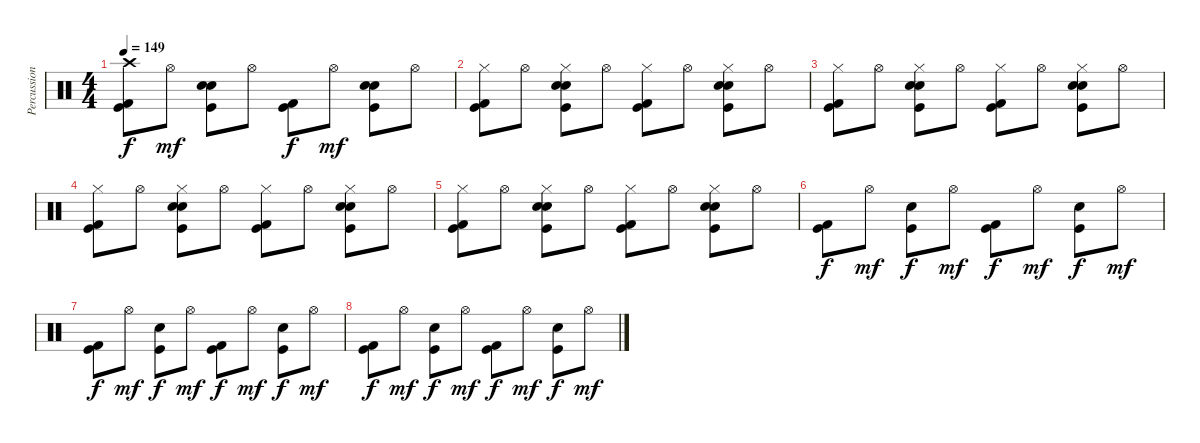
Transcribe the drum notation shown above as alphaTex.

\track ("Percussion" "Percussion") {instrument percussion}
\staff {score}
\articulation defaults
\ts (4 4)
\tempo 149
\clef neutral
\ks c
("Crash high (hit)" "Kick (hit)" "Kick (hit) 2").8{dy f} "Hi-Hat (open)".8{dy mf} ("Hand Clap (hit)" "Electric Snare (hit)" "Kick (hit)").8 "Hi-Hat (open)".8 ("Kick (hit)" "Kick (hit) 2").8{dy f} "Hi-Hat (open)".8{dy mf} ("Hand Clap (hit)" "Electric Snare (hit)" "Kick (hit)").8 "Hi-Hat (open)".8 |
("Hi-Hat (closed)" "Kick (hit)" "Kick (hit) 2").8 "Hi-Hat (open)".8 ("Hand Clap (hit)" "Electric Snare (hit)" "Hi-Hat (closed)" "Kick (hit)").8 "Hi-Hat (open)".8 ("Hi-Hat (closed)" "Kick (hit)" "Kick (hit) 2").8 "Hi-Hat (open)".8 ("Hand Clap (hit)" "Electric Snare (hit)" "Hi-Hat (closed)" "Kick (hit)").8 "Hi-Hat (open)".8 |
("Hi-Hat (closed)" "Kick (hit)" "Kick (hit) 2").8 "Hi-Hat (open)".8 ("Hand Clap (hit)" "Electric Snare (hit)" "Hi-Hat (closed)" "Kick (hit)").8 "Hi-Hat (open)".8 ("Hi-Hat (closed)" "Kick (hit)" "Kick (hit) 2").8 "Hi-Hat (open)".8 ("Hand Clap (hit)" "Electric Snare (hit)" "Hi-Hat (closed)" "Kick (hit)").8 "Hi-Hat (open)".8 |
("Hi-Hat (closed)" "Kick (hit)" "Kick (hit) 2").8{volume 0} "Hi-Hat (open)".8 ("Hand Clap (hit)" "Electric Snare (hit)" "Hi-Hat (closed)" "Kick (hit)").8 "Hi-Hat (open)".8 ("Hi-Hat (closed)" "Kick (hit)" "Kick (hit) 2").8 "Hi-Hat (open)".8 ("Hand Clap (hit)" "Electric Snare (hit)" "Hi-Hat (closed)" "Kick (hit)").8 "Hi-Hat (open)".8 |
("Hi-Hat (closed)" "Kick (hit)" "Kick (hit) 2").8 "Hi-Hat (open)".8 ("Hand Clap (hit)" "Electric Snare (hit)" "Hi-Hat (closed)" "Kick (hit)").8 "Hi-Hat (open)".8 ("Hi-Hat (closed)" "Kick (hit)" "Kick (hit) 2").8 "Hi-Hat (open)".8 ("Hand Clap (hit)" "Electric Snare (hit)" "Hi-Hat (closed)" "Kick (hit)").8 "Hi-Hat (open)".8 |
("Kick (hit)" "Kick (hit) 2").8{dy f} "Hi-Hat (open)".8{dy mf} ("Electric Snare (hit)" "Kick (hit)").8{dy f} "Hi-Hat (open)".8{dy mf} ("Kick (hit)" "Kick (hit) 2").8{dy f} "Hi-Hat (open)".8{dy mf} ("Electric Snare (hit)" "Kick (hit)").8{dy f} "Hi-Hat (open)".8{dy mf} |
("Kick (hit)" "Kick (hit) 2").8{dy f} "Hi-Hat (open)".8{dy mf} ("Electric Snare (hit)" "Kick (hit)").8{dy f} "Hi-Hat (open)".8{dy mf} ("Kick (hit)" "Kick (hit) 2").8{dy f} "Hi-Hat (open)".8{dy mf} ("Electric Snare (hit)" "Kick (hit)").8{dy f} "Hi-Hat (open)".8{dy mf} |
("Kick (hit)" "Kick (hit) 2").8{dy f} "Hi-Hat (open)".8{dy mf} ("Electric Snare (hit)" "Kick (hit)").8{dy f} "Hi-Hat (open)".8{dy mf} ("Kick (hit)" "Kick (hit) 2").8{dy f} "Hi-Hat (open)".8{dy mf} ("Electric Snare (hit)" "Kick (hit)").8{dy f} "Hi-Hat (open)".8{dy mf}
